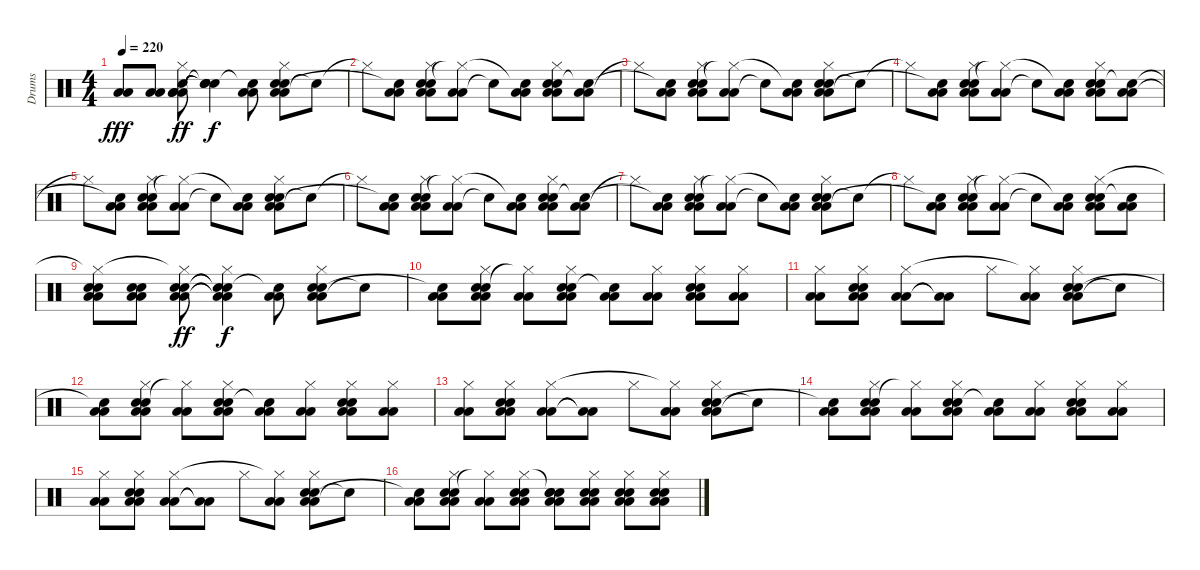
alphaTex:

\track ("Drums" "Drums") {instrument percussion}
\staff {score}
\articulation defaults
\ts (4 4)
\tempo 220
\clef neutral
\ks c
("Low Floor Tom (hit)" "Low Floor Tom (hit)").8{dy fff} ("Low Floor Tom (hit)" "Low Floor Tom (hit)").8 ("Low Floor Tom (hit)" "Low Floor Tom (hit)" "Electric Snare (hit)" "Low Tom (hit)" "Hi-Hat (closed)").8{dy ff} ("Snare (hit)"{t} "Snare (hit)"{t} "Snare (hit)"{t} "Snare (hit)"{t}).4{dy f} ("Low Floor Tom (hit)" "Low Floor Tom (hit)" "Snare (hit)"{t}).8 ("Low Floor Tom (hit)" "Low Floor Tom (hit)" "Electric Snare (hit)" "Snare (hit) 2" "Hi-Hat (closed)").8 "Snare (hit)"{t}.8 |
"Hi-Hat (closed)"{t}.8 ("Low Floor Tom (hit)" "Low Floor Tom (hit)" "Snare (hit)"{t}).8 ("Low Floor Tom (hit)" "Low Floor Tom (hit)" "Electric Snare (hit)" "Snare (hit) 2" "Hi-Hat (closed)").8 ("Low Floor Tom (hit)" "Low Floor Tom (hit)" "Hi-Hat (closed)"{t}).8 "Snare (hit)"{t}.8 ("Low Floor Tom (hit)" "Low Floor Tom (hit)" "Snare (hit)"{t}).8 ("Low Floor Tom (hit)" "Low Floor Tom (hit)" "Electric Snare (hit)" "Snare (hit) 2" "Hi-Hat (closed)").8 ("Low Floor Tom (hit)" "Low Floor Tom (hit)" "Snare (hit)"{t}).8 |
"Hi-Hat (closed)"{t}.8 ("Low Floor Tom (hit)" "Low Floor Tom (hit)" "Snare (hit)"{t}).8 ("Low Floor Tom (hit)" "Low Floor Tom (hit)" "Electric Snare (hit)" "Snare (hit) 2" "Hi-Hat (closed)").8 ("Low Floor Tom (hit)" "Low Floor Tom (hit)" "Hi-Hat (closed)"{t}).8 "Snare (hit)"{t}.8 ("Low Floor Tom (hit)" "Low Floor Tom (hit)" "Snare (hit)"{t}).8 ("Low Floor Tom (hit)" "Low Floor Tom (hit)" "Electric Snare (hit)" "Snare (hit) 2" "Hi-Hat (closed)").8 "Snare (hit)"{t}.8 |
"Hi-Hat (closed)"{t}.8 ("Low Floor Tom (hit)" "Low Floor Tom (hit)" "Snare (hit)"{t}).8 ("Low Floor Tom (hit)" "Low Floor Tom (hit)" "Electric Snare (hit)" "Snare (hit) 2" "Hi-Hat (closed)").8 ("Low Floor Tom (hit)" "Low Floor Tom (hit)" "Hi-Hat (closed)"{t}).8 "Snare (hit)"{t}.8 ("Low Floor Tom (hit)" "Low Floor Tom (hit)" "Snare (hit)"{t}).8 ("Low Floor Tom (hit)" "Low Floor Tom (hit)" "Electric Snare (hit)" "Snare (hit) 2" "Hi-Hat (closed)").8 ("Low Floor Tom (hit)" "Low Floor Tom (hit)" "Snare (hit)"{t}).8 |
"Hi-Hat (closed)"{t}.8 ("Low Floor Tom (hit)" "Low Floor Tom (hit)" "Snare (hit)"{t}).8 ("Low Floor Tom (hit)" "Low Floor Tom (hit)" "Electric Snare (hit)" "Snare (hit) 2" "Hi-Hat (closed)").8 ("Low Floor Tom (hit)" "Low Floor Tom (hit)" "Hi-Hat (closed)"{t}).8 "Snare (hit)"{t}.8 ("Low Floor Tom (hit)" "Low Floor Tom (hit)" "Snare (hit)"{t}).8 ("Low Floor Tom (hit)" "Low Floor Tom (hit)" "Electric Snare (hit)" "Snare (hit) 2" "Hi-Hat (closed)").8 "Snare (hit)"{t}.8 |
"Hi-Hat (closed)"{t}.8 ("Low Floor Tom (hit)" "Low Floor Tom (hit)" "Snare (hit)"{t}).8 ("Low Floor Tom (hit)" "Low Floor Tom (hit)" "Electric Snare (hit)" "Snare (hit) 2" "Hi-Hat (closed)").8 ("Low Floor Tom (hit)" "Low Floor Tom (hit)" "Hi-Hat (closed)"{t}).8 "Snare (hit)"{t}.8 ("Low Floor Tom (hit)" "Low Floor Tom (hit)" "Snare (hit)"{t}).8 ("Low Floor Tom (hit)" "Low Floor Tom (hit)" "Electric Snare (hit)" "Snare (hit) 2" "Hi-Hat (closed)").8 ("Low Floor Tom (hit)" "Low Floor Tom (hit)" "Snare (hit)"{t}).8 |
"Hi-Hat (closed)"{t}.8 ("Low Floor Tom (hit)" "Low Floor Tom (hit)" "Snare (hit)"{t}).8 ("Low Floor Tom (hit)" "Low Floor Tom (hit)" "Electric Snare (hit)" "Snare (hit) 2" "Hi-Hat (closed)").8 ("Low Floor Tom (hit)" "Low Floor Tom (hit)" "Hi-Hat (closed)"{t}).8 "Snare (hit)"{t}.8 ("Low Floor Tom (hit)" "Low Floor Tom (hit)" "Snare (hit)"{t}).8 ("Low Floor Tom (hit)" "Low Floor Tom (hit)" "Electric Snare (hit)" "Snare (hit) 2" "Hi-Hat (closed)").8 "Snare (hit)"{t}.8 |
"Hi-Hat (closed)"{t}.8 ("Low Floor Tom (hit)" "Low Floor Tom (hit)" "Snare (hit)"{t}).8 ("Low Floor Tom (hit)" "Low Floor Tom (hit)" "Electric Snare (hit)" "Snare (hit) 2" "Hi-Hat (closed)").8 ("Low Floor Tom (hit)" "Low Floor Tom (hit)" "Hi-Hat (closed)"{t}).8 "Snare (hit)"{t}.8 ("Low Floor Tom (hit)" "Low Floor Tom (hit)" "Snare (hit)"{t}).8 ("Low Floor Tom (hit)" "Low Floor Tom (hit)" "Electric Snare (hit)" "Snare (hit) 2" "Hi-Hat (closed)").8 ("Low Floor Tom (hit)" "Low Floor Tom (hit)" "Snare (hit)"{t}).8 |
("Low Floor Tom (hit)" "Low Floor Tom (hit)" "Electric Snare (hit)" "Snare (hit) 2" "Hi-Hat (closed)"{t}).8 ("Low Floor Tom (hit)" "Low Floor Tom (hit)" "Electric Snare (hit)" "Snare (hit) 2").8 ("Low Floor Tom (hit)" "Low Floor Tom (hit)" "Electric Snare (hit)" "Snare (hit) 2" "Hi-Hat (closed)"{t}).8{dy ff} ("Low Floor Tom (hit)"{t} "Low Floor Tom (hit)"{t} "Electric Snare (hit)"{t} "Snare (hit) 2"{t} "Hi-Hat (closed)").4{dy f} ("Low Floor Tom (hit)" "Low Floor Tom (hit)" "Snare (hit)"{t}).8 ("Low Floor Tom (hit)" "Low Floor Tom (hit)" "Electric Snare (hit)" "Snare (hit) 2" "Hi-Hat (closed)").8 "Snare (hit)"{t}.8 |
("Low Floor Tom (hit)" "Low Floor Tom (hit)" "Snare (hit)"{t}).8 ("Low Floor Tom (hit)" "Low Floor Tom (hit)" "Electric Snare (hit)" "Snare (hit) 2" "Hi-Hat (closed)").8 ("Low Floor Tom (hit)" "Low Floor Tom (hit)" "Hi-Hat (closed)"{t}).8 ("Low Floor Tom (hit)" "Low Floor Tom (hit)" "Electric Snare (hit)" "Snare (hit) 2" "Hi-Hat (closed)").8 ("Low Floor Tom (hit)" "Low Floor Tom (hit)" "Snare (hit)"{t}).8 ("Low Floor Tom (hit)" "Low Floor Tom (hit)" "Hi-Hat (closed)").8 ("Low Floor Tom (hit)" "Low Floor Tom (hit)" "Electric Snare (hit)" "Snare (hit) 2" "Hi-Hat (closed)").8 ("Low Floor Tom (hit)" "Low Floor Tom (hit)" "Hi-Hat (closed)").8 |
("Low Floor Tom (hit)" "Low Floor Tom (hit)" "Hi-Hat (closed)").8 ("Low Floor Tom (hit)" "Low Floor Tom (hit)" "Electric Snare (hit)" "Snare (hit) 2" "Hi-Hat (closed)").8 ("Low Floor Tom (hit)" "Low Floor Tom (hit)" "Hi-Hat (closed)").8 ("Low Floor Tom (hit)"{t} "Low Floor Tom (hit)"{t}).8 "Hi-Hat (closed)".8 ("Low Floor Tom (hit)" "Low Floor Tom (hit)" "Hi-Hat (closed)"{t}).8 ("Low Floor Tom (hit)" "Low Floor Tom (hit)" "Electric Snare (hit)" "Snare (hit) 2" "Hi-Hat (closed)").8 "Snare (hit)"{t}.8 |
("Low Floor Tom (hit)" "Low Floor Tom (hit)" "Snare (hit)"{t}).8 ("Low Floor Tom (hit)" "Low Floor Tom (hit)" "Electric Snare (hit)" "Snare (hit) 2" "Hi-Hat (closed)").8 ("Low Floor Tom (hit)" "Low Floor Tom (hit)" "Hi-Hat (closed)"{t}).8 ("Low Floor Tom (hit)" "Low Floor Tom (hit)" "Electric Snare (hit)" "Snare (hit) 2" "Hi-Hat (closed)").8 ("Low Floor Tom (hit)" "Low Floor Tom (hit)" "Snare (hit)"{t}).8 ("Low Floor Tom (hit)" "Low Floor Tom (hit)" "Hi-Hat (closed)").8 ("Low Floor Tom (hit)" "Low Floor Tom (hit)" "Electric Snare (hit)" "Snare (hit) 2" "Hi-Hat (closed)").8 ("Low Floor Tom (hit)" "Low Floor Tom (hit)" "Hi-Hat (closed)").8 |
("Low Floor Tom (hit)" "Low Floor Tom (hit)" "Hi-Hat (closed)").8 ("Low Floor Tom (hit)" "Low Floor Tom (hit)" "Electric Snare (hit)" "Snare (hit) 2" "Hi-Hat (closed)").8 ("Low Floor Tom (hit)" "Low Floor Tom (hit)" "Hi-Hat (closed)").8 ("Low Floor Tom (hit)"{t} "Low Floor Tom (hit)"{t}).8 "Hi-Hat (closed)".8 ("Low Floor Tom (hit)" "Low Floor Tom (hit)" "Hi-Hat (closed)"{t}).8 ("Low Floor Tom (hit)" "Low Floor Tom (hit)" "Electric Snare (hit)" "Snare (hit) 2" "Hi-Hat (closed)").8 "Snare (hit)"{t}.8 |
("Low Floor Tom (hit)" "Low Floor Tom (hit)" "Snare (hit)"{t}).8 ("Low Floor Tom (hit)" "Low Floor Tom (hit)" "Electric Snare (hit)" "Snare (hit) 2" "Hi-Hat (closed)").8 ("Low Floor Tom (hit)" "Low Floor Tom (hit)" "Hi-Hat (closed)"{t}).8 ("Low Floor Tom (hit)" "Low Floor Tom (hit)" "Electric Snare (hit)" "Snare (hit) 2" "Hi-Hat (closed)").8 ("Low Floor Tom (hit)" "Low Floor Tom (hit)" "Snare (hit)"{t}).8 ("Low Floor Tom (hit)" "Low Floor Tom (hit)" "Hi-Hat (closed)").8 ("Low Floor Tom (hit)" "Low Floor Tom (hit)" "Electric Snare (hit)" "Snare (hit) 2" "Hi-Hat (closed)").8 ("Low Floor Tom (hit)" "Low Floor Tom (hit)" "Hi-Hat (closed)").8 |
("Low Floor Tom (hit)" "Low Floor Tom (hit)" "Hi-Hat (closed)").8 ("Low Floor Tom (hit)" "Low Floor Tom (hit)" "Electric Snare (hit)" "Snare (hit) 2" "Hi-Hat (closed)").8 ("Low Floor Tom (hit)" "Low Floor Tom (hit)" "Hi-Hat (closed)").8 ("Low Floor Tom (hit)"{t} "Low Floor Tom (hit)"{t}).8 "Hi-Hat (closed)".8 ("Low Floor Tom (hit)" "Low Floor Tom (hit)" "Hi-Hat (closed)"{t}).8 ("Low Floor Tom (hit)" "Low Floor Tom (hit)" "Electric Snare (hit)" "Snare (hit) 2" "Hi-Hat (closed)").8 "Snare (hit)"{t}.8 |
("Low Floor Tom (hit)" "Low Floor Tom (hit)" "Snare (hit)"{t}).8 ("Low Floor Tom (hit)" "Low Floor Tom (hit)" "Electric Snare (hit)" "Snare (hit) 2" "Hi-Hat (closed)").8 ("Low Floor Tom (hit)" "Low Floor Tom (hit)" "Hi-Hat (closed)"{t}).8 ("Low Floor Tom (hit)" "Low Floor Tom (hit)" "Electric Snare (hit)" "Snare (hit) 2" "Hi-Hat (closed)").8 ("Low Floor Tom (hit)" "Low Floor Tom (hit)" "Electric Snare (hit)" "Snare (hit) 2" "Snare (hit)"{t}).8 ("Low Floor Tom (hit)" "Low Floor Tom (hit)" "Electric Snare (hit)" "Snare (hit) 2" "Hi-Hat (closed)").8 ("Low Floor Tom (hit)" "Low Floor Tom (hit)" "Electric Snare (hit)" "Snare (hit) 2" "Hi-Hat (closed)").8 ("Low Floor Tom (hit)" "Low Floor Tom (hit)" "Electric Snare (hit)" "Snare (hit) 2" "Hi-Hat (closed)").8
